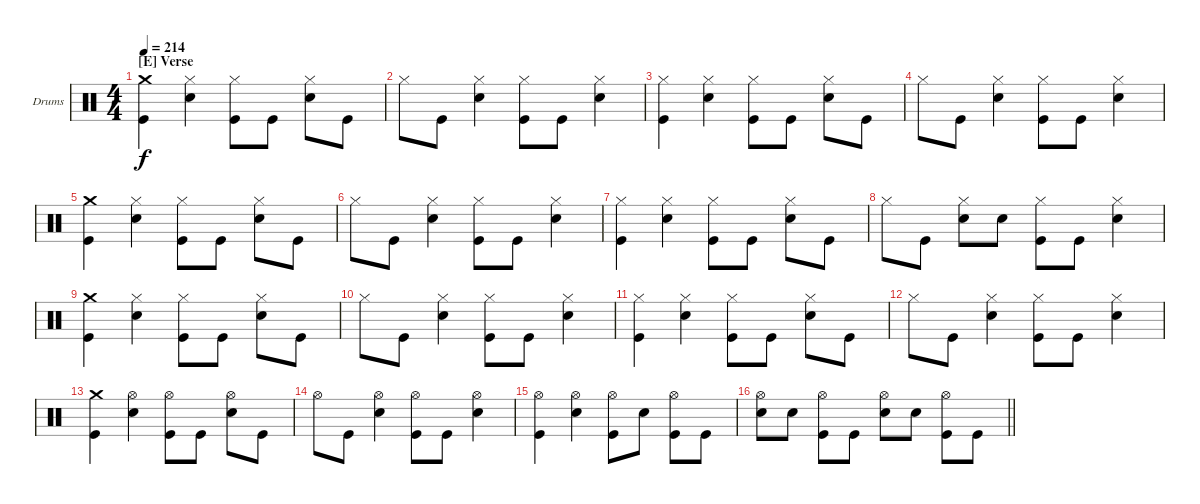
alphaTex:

\bracketExtendMode groupsimilarinstruments
\firstSystemTrackNameOrientation horizontal
\otherSystemsTrackNameOrientation horizontal
\track ("Drumkit" "Drums") {instrument percussion}
\staff {score}
\articulation defaults
\ts (4 4)
\section ("E" "Verse")
\tempo 214
\clef neutral
\ks c
("Kick (hit)" "Crash medium (hit)").4{dy f} ("Snare (hit) 2" "Hi-Hat (closed)").4 ("Kick (hit)" "Hi-Hat (closed)").8 "Kick (hit)".8 ("Snare (hit) 2" "Hi-Hat (closed)").8 "Kick (hit)".8 |
"Hi-Hat (closed)".8 "Kick (hit)".8 ("Snare (hit) 2" "Hi-Hat (closed)").4 ("Kick (hit)" "Hi-Hat (closed)").8 "Kick (hit)".8 ("Snare (hit) 2" "Hi-Hat (closed)").4 |
("Kick (hit)" "Hi-Hat (closed)").4 ("Snare (hit) 2" "Hi-Hat (closed)").4 ("Kick (hit)" "Hi-Hat (closed)").8 "Kick (hit)".8 ("Snare (hit) 2" "Hi-Hat (closed)").8 "Kick (hit)".8 |
"Hi-Hat (closed)".8 "Kick (hit)".8 ("Snare (hit) 2" "Hi-Hat (closed)").4 ("Kick (hit)" "Hi-Hat (closed)").8 "Kick (hit)".8 ("Snare (hit) 2" "Hi-Hat (closed)").4 |
("Kick (hit)" "Crash medium (hit)").4 ("Snare (hit) 2" "Hi-Hat (closed)").4 ("Kick (hit)" "Hi-Hat (closed)").8 "Kick (hit)".8 ("Snare (hit) 2" "Hi-Hat (closed)").8 "Kick (hit)".8 |
"Hi-Hat (closed)".8 "Kick (hit)".8 ("Snare (hit) 2" "Hi-Hat (closed)").4 ("Kick (hit)" "Hi-Hat (closed)").8 "Kick (hit)".8 ("Snare (hit) 2" "Hi-Hat (closed)").4 |
("Kick (hit)" "Hi-Hat (closed)").4 ("Snare (hit) 2" "Hi-Hat (closed)").4 ("Kick (hit)" "Hi-Hat (closed)").8 "Kick (hit)".8 ("Snare (hit) 2" "Hi-Hat (closed)").8 "Kick (hit)".8 |
"Hi-Hat (closed)".8 "Kick (hit)".8 ("Snare (hit) 2" "Hi-Hat (closed)").8 "Snare (hit) 2".8 ("Kick (hit)" "Hi-Hat (closed)").8 "Kick (hit)".8 ("Snare (hit) 2" "Hi-Hat (closed)").4 |
("Kick (hit)" "Crash medium (hit)").4 ("Snare (hit) 2" "Hi-Hat (closed)").4 ("Kick (hit)" "Hi-Hat (closed)").8 "Kick (hit)".8 ("Snare (hit) 2" "Hi-Hat (closed)").8 "Kick (hit)".8 |
"Hi-Hat (closed)".8 "Kick (hit)".8 ("Snare (hit) 2" "Hi-Hat (closed)").4 ("Kick (hit)" "Hi-Hat (closed)").8 "Kick (hit)".8 ("Snare (hit) 2" "Hi-Hat (closed)").4 |
("Kick (hit)" "Hi-Hat (closed)").4 ("Snare (hit) 2" "Hi-Hat (closed)").4 ("Kick (hit)" "Hi-Hat (closed)").8 "Kick (hit)".8 ("Snare (hit) 2" "Hi-Hat (closed)").8 "Kick (hit)".8 |
"Hi-Hat (closed)".8 "Kick (hit)".8 ("Snare (hit) 2" "Hi-Hat (closed)").4 ("Kick (hit)" "Hi-Hat (closed)").8 "Kick (hit)".8 ("Snare (hit) 2" "Hi-Hat (closed)").4 |
("Kick (hit)" "Crash medium (hit)").4 ("Snare (hit) 2" "Hi-Hat (open)").4 ("Kick (hit)" "Hi-Hat (open)").8 "Kick (hit)".8 ("Snare (hit) 2" "Hi-Hat (open)").8 "Kick (hit)".8 |
"Hi-Hat (open)".8 "Kick (hit)".8 ("Snare (hit) 2" "Hi-Hat (open)").4 ("Kick (hit)" "Hi-Hat (open)").8 "Kick (hit)".8 ("Snare (hit) 2" "Hi-Hat (open)").4 |
("Hi-Hat (open)" "Kick (hit)").4 ("Snare (hit) 2" "Hi-Hat (open)").4 ("Kick (hit)" "Hi-Hat (open)").8 "Snare (hit) 2".8 ("Kick (hit)" "Hi-Hat (open)").8 "Kick (hit)".8 |
\barLineRight lightlight
("Snare (hit) 2" "Hi-Hat (open)").8 "Snare (hit) 2".8 ("Kick (hit)" "Hi-Hat (open)").8 "Kick (hit)".8 ("Snare (hit) 2" "Hi-Hat (open)").8 "Snare (hit) 2".8 ("Kick (hit)" "Hi-Hat (open)").8 "Kick (hit)".8
